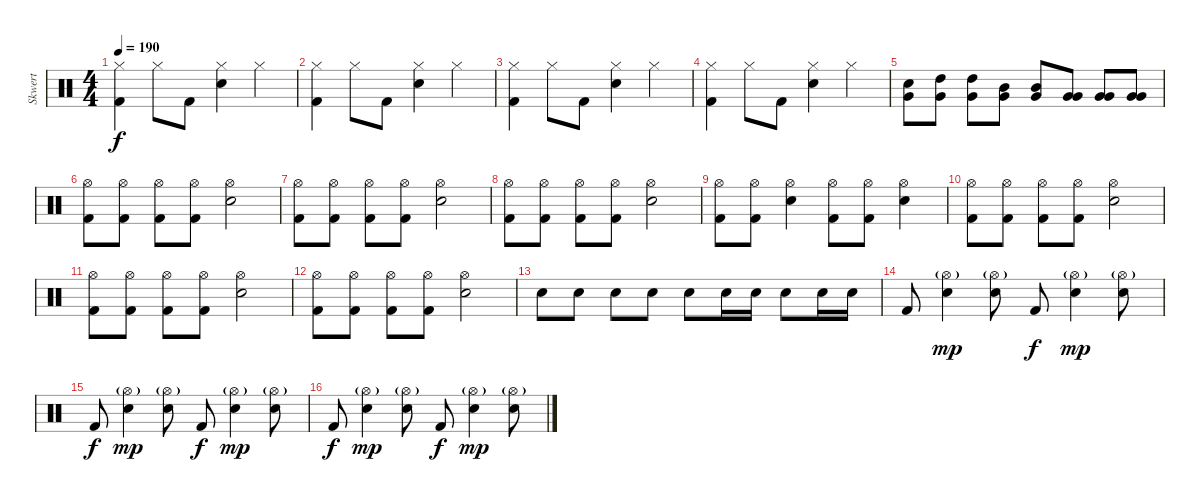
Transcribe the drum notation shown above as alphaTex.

\track ("Skwert" "Skwert") {instrument percussion}
\staff {score}
\articulation defaults
\ts (4 4)
\tempo 190
\clef neutral
\ks c
("Hi-Hat (closed)" "Kick (hit) 2").4{dy f} "Hi-Hat (closed)".8 "Kick (hit) 2".8 ("Hi-Hat (closed)" "Electric Snare (hit)").4 "Hi-Hat (closed)".4 |
("Hi-Hat (closed)" "Kick (hit) 2").4 "Hi-Hat (closed)".8 "Kick (hit) 2".8 ("Hi-Hat (closed)" "Electric Snare (hit)").4 "Hi-Hat (closed)".4 |
("Hi-Hat (closed)" "Kick (hit) 2").4 "Hi-Hat (closed)".8 "Kick (hit) 2".8 ("Hi-Hat (closed)" "Electric Snare (hit)").4 "Hi-Hat (closed)".4 |
("Hi-Hat (closed)" "Kick (hit) 2").4 "Hi-Hat (closed)".8 "Kick (hit) 2".8 ("Hi-Hat (closed)" "Electric Snare (hit)").4 "Hi-Hat (closed)".4 |
("Very Low Tom (hit)" "Electric Snare (hit)").8 ("High Tom (hit)" "Very Low Tom (hit)").8 ("High Tom (hit)" "Very Low Tom (hit)").8 ("Mid Tom (hit)" "Very Low Tom (hit)").8 ("Mid Tom (hit)" "Very Low Tom (hit)").8 ("Very Low Tom (hit)" "Very Low Tom (hit)").8 ("Very Low Tom (hit)" "Very Low Tom (hit)").8 ("Very Low Tom (hit)" "Very Low Tom (hit)").8 |
("Hi-Hat (open)" "Kick (hit) 2").8 ("Hi-Hat (open)" "Kick (hit) 2").8 ("Hi-Hat (open)" "Kick (hit) 2").8 ("Hi-Hat (open)" "Kick (hit) 2").8 ("Hi-Hat (open)" "Electric Snare (hit)").2 |
("Hi-Hat (open)" "Kick (hit) 2").8 ("Hi-Hat (open)" "Kick (hit) 2").8 ("Hi-Hat (open)" "Kick (hit) 2").8 ("Hi-Hat (open)" "Kick (hit) 2").8 ("Hi-Hat (open)" "Electric Snare (hit)").2 |
("Hi-Hat (open)" "Kick (hit) 2").8 ("Hi-Hat (open)" "Kick (hit) 2").8 ("Hi-Hat (open)" "Kick (hit) 2").8 ("Hi-Hat (open)" "Kick (hit) 2").8 ("Hi-Hat (open)" "Electric Snare (hit)").2 |
("Hi-Hat (open)" "Kick (hit) 2").8 ("Hi-Hat (open)" "Kick (hit) 2").8 ("Hi-Hat (open)" "Electric Snare (hit)").4 ("Hi-Hat (open)" "Kick (hit) 2").8 ("Hi-Hat (open)" "Kick (hit) 2").8 ("Hi-Hat (open)" "Electric Snare (hit)").4 |
("Hi-Hat (open)" "Kick (hit) 2").8 ("Hi-Hat (open)" "Kick (hit) 2").8 ("Hi-Hat (open)" "Kick (hit) 2").8 ("Hi-Hat (open)" "Kick (hit) 2").8 ("Hi-Hat (open)" "Electric Snare (hit)").2 |
("Hi-Hat (open)" "Kick (hit) 2").8 ("Hi-Hat (open)" "Kick (hit) 2").8 ("Hi-Hat (open)" "Kick (hit) 2").8 ("Hi-Hat (open)" "Kick (hit) 2").8 ("Hi-Hat (open)" "Electric Snare (hit)").2 |
("Hi-Hat (open)" "Kick (hit) 2").8 ("Hi-Hat (open)" "Kick (hit) 2").8 ("Hi-Hat (open)" "Kick (hit) 2").8 ("Hi-Hat (open)" "Kick (hit) 2").8 ("Hi-Hat (open)" "Electric Snare (hit)").2 |
"Electric Snare (hit)".8 "Electric Snare (hit)".8 "Electric Snare (hit)".8 "Electric Snare (hit)".8 "Electric Snare (hit)".8 "Electric Snare (hit)".16 "Electric Snare (hit)".16 "Electric Snare (hit)".8 "Electric Snare (hit)".16 "Electric Snare (hit)".16 |
"Kick (hit) 2".8 ("Hi-Hat (open)"{g} "Electric Snare (hit)").4{dy mp} ("Hi-Hat (open)"{g} "Electric Snare (hit)").8 "Kick (hit) 2".8{dy f} ("Hi-Hat (open)"{g} "Electric Snare (hit)").4{dy mp} ("Hi-Hat (open)"{g} "Electric Snare (hit)").8 |
"Kick (hit) 2".8{dy f} ("Hi-Hat (open)"{g} "Electric Snare (hit)").4{dy mp} ("Hi-Hat (open)"{g} "Electric Snare (hit)").8 "Kick (hit) 2".8{dy f} ("Hi-Hat (open)"{g} "Electric Snare (hit)").4{dy mp} ("Hi-Hat (open)"{g} "Electric Snare (hit)").8 |
"Kick (hit) 2".8{dy f} ("Hi-Hat (open)"{g} "Electric Snare (hit)").4{dy mp} ("Hi-Hat (open)"{g} "Electric Snare (hit)").8 "Kick (hit) 2".8{dy f} ("Hi-Hat (open)"{g} "Electric Snare (hit)").4{dy mp} ("Hi-Hat (open)"{g} "Electric Snare (hit)").8
